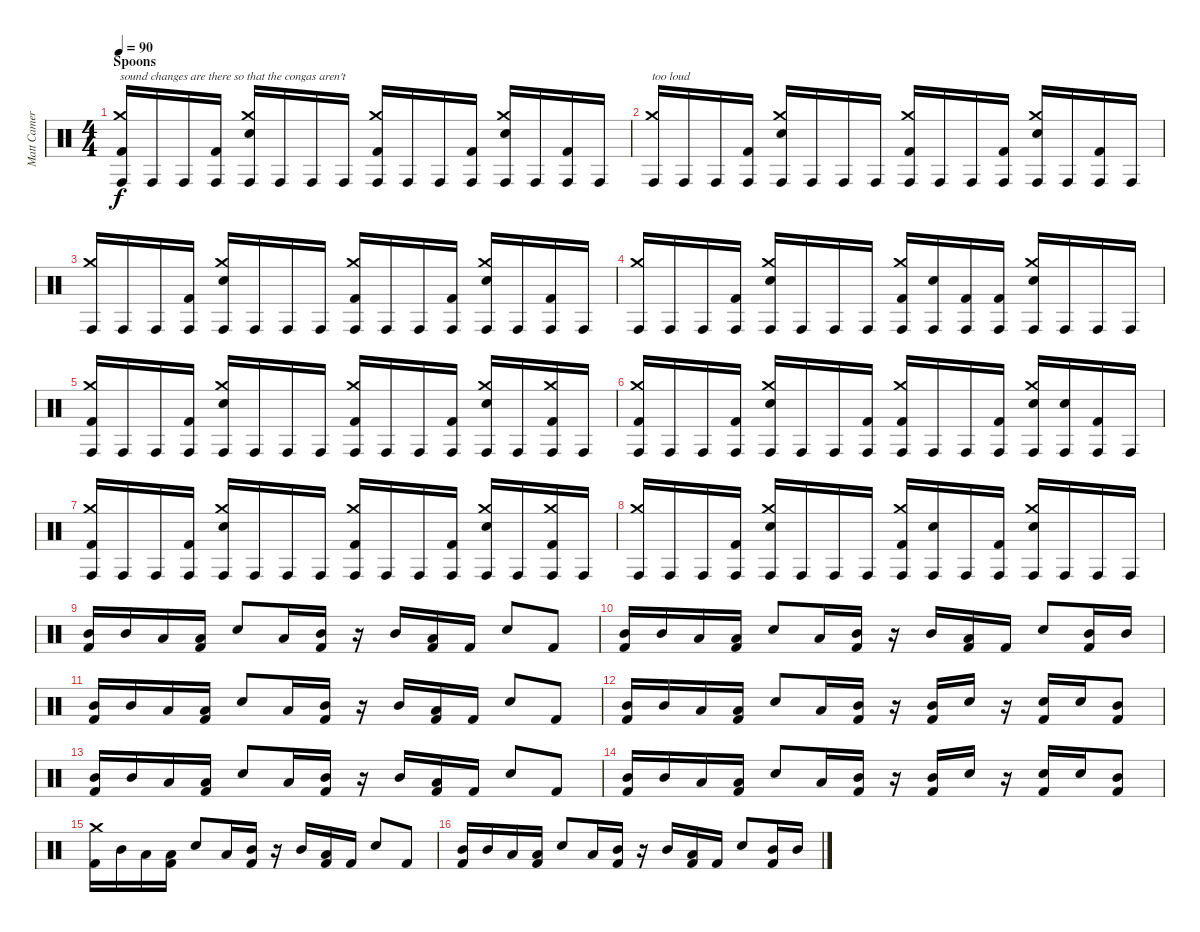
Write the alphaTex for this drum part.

\track ("Matt Cameron" "Matt Camer") {instrument percussion}
\staff {score}
\articulation defaults
\ts (4 4)
\section ("" "Spoons")
\tempo 90
\clef neutral
\ks c
("Crash medium (hit)" "Conga high (hit)" "Kick (hit) 2").16{txt "sound changes are there so that the congas aren't " dy f volume 16} "Conga high (hit)".16{volume 11} "Conga high (hit)".16 ("Conga high (hit)" "Kick (hit) 2").16 ("Crash medium (hit)" "Conga high (hit)" "Electric Snare (hit)").16{volume 16} "Conga high (hit)".16{volume 11} "Conga high (hit)".16 "Conga high (hit)".16 ("Crash medium (hit)" "Conga high (hit)" "Kick (hit) 2").16{volume 16} "Conga high (hit)".16{volume 11} "Conga high (hit)".16 ("Conga high (hit)" "Kick (hit) 2").16 ("Crash medium (hit)" "Conga high (hit)" "Electric Snare (hit)").16{volume 16} "Conga high (hit)".16{volume 11} ("Conga high (hit)" "Kick (hit) 2").16 "Conga high (hit)".16 |
("Crash medium (hit)" "Conga high (hit)").16{txt "too loud" volume 16} "Conga high (hit)".16{volume 11} "Conga high (hit)".16 ("Conga high (hit)" "Kick (hit) 2").16 ("Crash medium (hit)" "Conga high (hit)" "Electric Snare (hit)").16{volume 16} "Conga high (hit)".16{volume 11} "Conga high (hit)".16 "Conga high (hit)".16 ("Crash medium (hit)" "Conga high (hit)" "Kick (hit) 2").16{volume 16} "Conga high (hit)".16{volume 11} "Conga high (hit)".16 ("Conga high (hit)" "Kick (hit) 2").16 ("Crash medium (hit)" "Conga high (hit)" "Electric Snare (hit)").16{volume 16} "Conga high (hit)".16{volume 11} ("Conga high (hit)" "Kick (hit) 2").16 "Conga high (hit)".16 |
("Crash medium (hit)" "Conga high (hit)").16{volume 16} "Conga high (hit)".16{volume 11} "Conga high (hit)".16 ("Conga high (hit)" "Kick (hit) 2").16 ("Crash medium (hit)" "Conga high (hit)" "Electric Snare (hit)").16{volume 16} "Conga high (hit)".16{volume 11} "Conga high (hit)".16 "Conga high (hit)".16 ("Crash medium (hit)" "Conga high (hit)" "Kick (hit) 2").16{volume 16} "Conga high (hit)".16{volume 11} "Conga high (hit)".16 ("Conga high (hit)" "Kick (hit) 2").16 ("Crash medium (hit)" "Conga high (hit)" "Electric Snare (hit)").16{volume 16} "Conga high (hit)".16{volume 11} ("Conga high (hit)" "Kick (hit) 2").16 "Conga high (hit)".16 |
("Crash medium (hit)" "Conga high (hit)").16{volume 16} "Conga high (hit)".16{volume 11} "Conga high (hit)".16 ("Conga high (hit)" "Kick (hit) 2").16 ("Crash medium (hit)" "Conga high (hit)" "Electric Snare (hit)").16{volume 16} "Conga high (hit)".16{volume 11} "Conga high (hit)".16 "Conga high (hit)".16 ("Crash medium (hit)" "Conga high (hit)" "Kick (hit) 2").16{volume 16} ("Conga high (hit)" "Electric Snare (hit)").16 ("Conga high (hit)" "Kick (hit) 2").16 ("Conga high (hit)" "Kick (hit) 2").16 ("Crash medium (hit)" "Conga high (hit)" "Electric Snare (hit)").16{volume 16} "Conga high (hit)".16{volume 11} "Conga high (hit)".16 "Conga high (hit)".16 |
("Crash medium (hit)" "Conga high (hit)" "Kick (hit) 2").16{volume 16} "Conga high (hit)".16{volume 11} "Conga high (hit)".16 ("Conga high (hit)" "Kick (hit) 2").16 ("Crash medium (hit)" "Conga high (hit)" "Electric Snare (hit)").16{volume 16} "Conga high (hit)".16{volume 11} "Conga high (hit)".16 "Conga high (hit)".16 ("Crash medium (hit)" "Conga high (hit)" "Kick (hit) 2").16{volume 16} "Conga high (hit)".16{volume 11} "Conga high (hit)".16 ("Conga high (hit)" "Kick (hit) 2").16 ("Crash medium (hit)" "Conga high (hit)" "Electric Snare (hit)").16{volume 16} "Conga high (hit)".16{volume 11} ("Crash medium (hit)" "Conga high (hit)" "Kick (hit) 2").16{volume 16} "Conga high (hit)".16{volume 11} |
("Crash medium (hit)" "Conga high (hit)" "Kick (hit) 2").16{volume 16} "Conga high (hit)".16{volume 11} "Conga high (hit)".16 ("Conga high (hit)" "Kick (hit) 2").16 ("Crash medium (hit)" "Conga high (hit)" "Electric Snare (hit)").16{volume 16} "Conga high (hit)".16{volume 11} "Conga high (hit)".16 ("Conga high (hit)" "Kick (hit) 2").16 ("Crash medium (hit)" "Conga high (hit)" "Kick (hit) 2").16{volume 16} "Conga high (hit)".16{volume 11} "Conga high (hit)".16 ("Conga high (hit)" "Kick (hit) 2").16 ("Crash medium (hit)" "Conga high (hit)" "Electric Snare (hit)").16{volume 16} ("Conga high (hit)" "Electric Snare (hit)").16 ("Conga high (hit)" "Kick (hit) 2").16 "Conga high (hit)".16{volume 11} |
("Crash medium (hit)" "Conga high (hit)" "Kick (hit) 2").16{volume 16} "Conga high (hit)".16{volume 11} "Conga high (hit)".16 ("Conga high (hit)" "Kick (hit) 2").16 ("Crash medium (hit)" "Conga high (hit)" "Electric Snare (hit)").16{volume 16} "Conga high (hit)".16{volume 11} "Conga high (hit)".16 "Conga high (hit)".16 ("Crash medium (hit)" "Conga high (hit)" "Kick (hit) 2").16{volume 16} "Conga high (hit)".16{volume 11} "Conga high (hit)".16 ("Conga high (hit)" "Kick (hit) 2").16 ("Crash medium (hit)" "Conga high (hit)" "Electric Snare (hit)").16{volume 16} "Conga high (hit)".16{volume 11} ("Crash medium (hit)" "Conga high (hit)" "Kick (hit) 2").16{volume 16} "Conga high (hit)".16{volume 11} |
("Crash medium (hit)" "Conga high (hit)").16{volume 16} "Conga high (hit)".16{volume 11} "Conga high (hit)".16 ("Conga high (hit)" "Kick (hit) 2").16 ("Crash medium (hit)" "Conga high (hit)" "Electric Snare (hit)").16{volume 16} "Conga high (hit)".16{volume 11} "Conga high (hit)".16 "Conga high (hit)".16 ("Crash medium (hit)" "Conga high (hit)" "Kick (hit) 2").16{volume 16} ("Conga high (hit)" "Electric Snare (hit)").16 "Conga high (hit)".16{volume 11} ("Conga high (hit)" "Kick (hit) 2").16 ("Crash medium (hit)" "Conga high (hit)" "Electric Snare (hit)").16{volume 16} "Conga high (hit)".16{volume 11} "Conga high (hit)".16 "Conga high (hit)".16 |
("Mid Tom (hit)" "Kick (hit) 2").16 "Mid Tom (hit)".16 "Low Tom (hit)".16 ("Low Tom (hit)" "Kick (hit) 2").16 "Electric Snare (hit)".8 "Low Tom (hit)".16 ("Mid Tom (hit)" "Kick (hit) 2").16 r.16 "Mid Tom (hit)".16 ("Low Tom (hit)" "Kick (hit) 2").16 "Kick (hit) 2".16 "Electric Snare (hit)".8 "Kick (hit) 2".8 |
("Mid Tom (hit)" "Kick (hit) 2").16 "Mid Tom (hit)".16 "Low Tom (hit)".16 ("Low Tom (hit)" "Kick (hit) 2").16 "Electric Snare (hit)".8 "Low Tom (hit)".16 ("Mid Tom (hit)" "Kick (hit) 2").16 r.16 "Mid Tom (hit)".16 ("Low Tom (hit)" "Kick (hit) 2").16 "Kick (hit) 2".16 "Electric Snare (hit)".8 ("Mid Tom (hit)" "Kick (hit) 2").16 "Mid Tom (hit)".16 |
("Mid Tom (hit)" "Kick (hit) 2").16 "Mid Tom (hit)".16 "Low Tom (hit)".16 ("Low Tom (hit)" "Kick (hit) 2").16 "Electric Snare (hit)".8 "Low Tom (hit)".16 ("Mid Tom (hit)" "Kick (hit) 2").16 r.16 "Mid Tom (hit)".16 ("Low Tom (hit)" "Kick (hit) 2").16 "Kick (hit) 2".16 "Electric Snare (hit)".8 "Kick (hit) 2".8 |
("Mid Tom (hit)" "Kick (hit) 2").16 "Mid Tom (hit)".16 "Low Tom (hit)".16 ("Low Tom (hit)" "Kick (hit) 2").16 "Electric Snare (hit)".8 "Low Tom (hit)".16 ("Mid Tom (hit)" "Kick (hit) 2").16 r.16 ("Mid Tom (hit)" "Kick (hit) 2").16 "Electric Snare (hit)".16 r.16 ("Electric Snare (hit)" "Kick (hit) 2").16 "Electric Snare (hit)".16 ("Mid Tom (hit)" "Kick (hit) 2").8 |
("Mid Tom (hit)" "Kick (hit) 2").16 "Mid Tom (hit)".16 "Low Tom (hit)".16 ("Low Tom (hit)" "Kick (hit) 2").16 "Electric Snare (hit)".8 "Low Tom (hit)".16 ("Mid Tom (hit)" "Kick (hit) 2").16 r.16 "Mid Tom (hit)".16 ("Low Tom (hit)" "Kick (hit) 2").16 "Kick (hit) 2".16 "Electric Snare (hit)".8 "Kick (hit) 2".8 |
("Mid Tom (hit)" "Kick (hit) 2").16 "Mid Tom (hit)".16 "Low Tom (hit)".16 ("Low Tom (hit)" "Kick (hit) 2").16 "Electric Snare (hit)".8 "Low Tom (hit)".16 ("Mid Tom (hit)" "Kick (hit) 2").16 r.16 ("Mid Tom (hit)" "Kick (hit) 2").16 "Electric Snare (hit)".16 r.16 ("Electric Snare (hit)" "Kick (hit) 2").16 "Electric Snare (hit)".16 ("Mid Tom (hit)" "Kick (hit) 2").8 |
("Crash medium (hit)" "Kick (hit) 2").16 "Mid Tom (hit)".16 "Low Tom (hit)".16 ("Low Tom (hit)" "Kick (hit) 2").16 "Electric Snare (hit)".8 "Low Tom (hit)".16 ("Mid Tom (hit)" "Kick (hit) 2").16 r.16 "Mid Tom (hit)".16 ("Low Tom (hit)" "Kick (hit) 2").16 "Kick (hit) 2".16 "Electric Snare (hit)".8 "Kick (hit) 2".8 |
("Mid Tom (hit)" "Kick (hit) 2").16 "Mid Tom (hit)".16 "Low Tom (hit)".16 ("Low Tom (hit)" "Kick (hit) 2").16 "Electric Snare (hit)".8 "Low Tom (hit)".16 ("Mid Tom (hit)" "Kick (hit) 2").16 r.16 "Mid Tom (hit)".16 ("Low Tom (hit)" "Kick (hit) 2").16 "Kick (hit) 2".16 "Electric Snare (hit)".8 ("Mid Tom (hit)" "Kick (hit) 2").16 "Mid Tom (hit)".16
